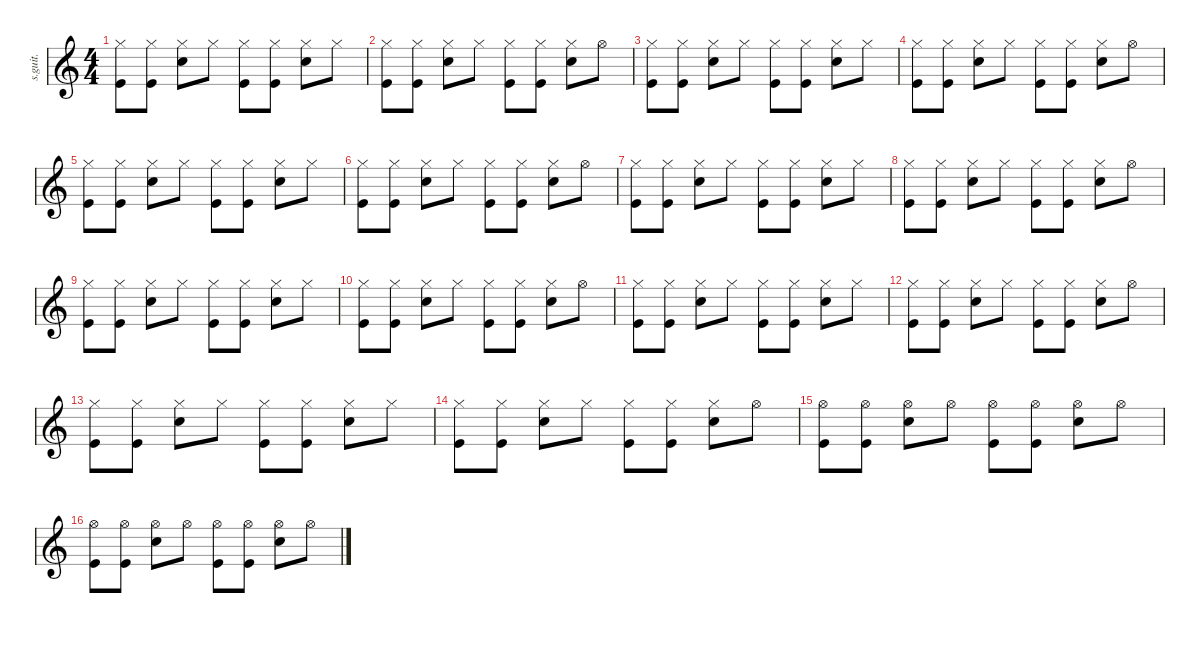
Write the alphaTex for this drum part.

\defaultSystemsLayout 4
\hideDynamics
\bracketExtendMode nobrackets
\track ("Will Champion" "s.guit.") {instrument percussion}
\staff {score}
\articulation defaults
\ts (4 4)
\tempo (87 hide)
\clef g2
\ks c
("Hi-Hat (closed)" "Kick (hit)").8{lyrics (0 "") lyrics (1 "") lyrics (2 "") lyrics (3 "") lyrics (4 "") dy mf} ("Hi-Hat (closed)" "Kick (hit)").8{lyrics (0 "") lyrics (1 "") lyrics (2 "") lyrics (3 "") lyrics (4 "")} ("Hi-Hat (closed)" "Snare (hit) 2").8{lyrics (0 "") lyrics (1 "") lyrics (2 "") lyrics (3 "") lyrics (4 "")} "Hi-Hat (closed)".8{lyrics (0 "") lyrics (1 "") lyrics (2 "") lyrics (3 "") lyrics (4 "")} ("Hi-Hat (closed)" "Kick (hit)").8{lyrics (0 "") lyrics (1 "") lyrics (2 "") lyrics (3 "") lyrics (4 "")} ("Hi-Hat (closed)" "Kick (hit)").8{lyrics (0 "") lyrics (1 "") lyrics (2 "") lyrics (3 "") lyrics (4 "")} ("Hi-Hat (closed)" "Snare (hit) 2").8{lyrics (0 "") lyrics (1 "") lyrics (2 "") lyrics (3 "") lyrics (4 "")} "Hi-Hat (closed)".8{lyrics (0 "") lyrics (1 "") lyrics (2 "") lyrics (3 "") lyrics (4 "")} |
("Kick (hit)" "Hi-Hat (closed)").8{lyrics (0 "") lyrics (1 "") lyrics (2 "") lyrics (3 "") lyrics (4 "")} ("Kick (hit)" "Hi-Hat (closed)").8{lyrics (0 "") lyrics (1 "") lyrics (2 "") lyrics (3 "") lyrics (4 "")} ("Snare (hit) 2" "Hi-Hat (closed)").8{lyrics (0 "") lyrics (1 "") lyrics (2 "") lyrics (3 "") lyrics (4 "")} "Hi-Hat (closed)".8{lyrics (0 "") lyrics (1 "") lyrics (2 "") lyrics (3 "") lyrics (4 "")} ("Kick (hit)" "Hi-Hat (closed)").8{lyrics (0 "") lyrics (1 "") lyrics (2 "") lyrics (3 "") lyrics (4 "")} ("Kick (hit)" "Hi-Hat (closed)").8{lyrics (0 "") lyrics (1 "") lyrics (2 "") lyrics (3 "") lyrics (4 "")} ("Snare (hit) 2" "Hi-Hat (closed)").8{lyrics (0 "") lyrics (1 "") lyrics (2 "") lyrics (3 "") lyrics (4 "")} "Hi-Hat (open)".8{lyrics (0 "") lyrics (1 "") lyrics (2 "") lyrics (3 "") lyrics (4 "")} |
("Hi-Hat (closed)" "Kick (hit)").8{lyrics (0 "") lyrics (1 "") lyrics (2 "") lyrics (3 "") lyrics (4 "")} ("Hi-Hat (closed)" "Kick (hit)").8{lyrics (0 "") lyrics (1 "") lyrics (2 "") lyrics (3 "") lyrics (4 "")} ("Hi-Hat (closed)" "Snare (hit) 2").8{lyrics (0 "") lyrics (1 "") lyrics (2 "") lyrics (3 "") lyrics (4 "")} "Hi-Hat (closed)".8{lyrics (0 "") lyrics (1 "") lyrics (2 "") lyrics (3 "") lyrics (4 "")} ("Hi-Hat (closed)" "Kick (hit)").8{lyrics (0 "") lyrics (1 "") lyrics (2 "") lyrics (3 "") lyrics (4 "")} ("Hi-Hat (closed)" "Kick (hit)").8{lyrics (0 "") lyrics (1 "") lyrics (2 "") lyrics (3 "") lyrics (4 "")} ("Hi-Hat (closed)" "Snare (hit) 2").8{lyrics (0 "") lyrics (1 "") lyrics (2 "") lyrics (3 "") lyrics (4 "")} "Hi-Hat (closed)".8{lyrics (0 "") lyrics (1 "") lyrics (2 "") lyrics (3 "") lyrics (4 "")} |
("Kick (hit)" "Hi-Hat (closed)").8{lyrics (0 "") lyrics (1 "") lyrics (2 "") lyrics (3 "") lyrics (4 "")} ("Kick (hit)" "Hi-Hat (closed)").8{lyrics (0 "") lyrics (1 "") lyrics (2 "") lyrics (3 "") lyrics (4 "")} ("Snare (hit) 2" "Hi-Hat (closed)").8{lyrics (0 "") lyrics (1 "") lyrics (2 "") lyrics (3 "") lyrics (4 "")} "Hi-Hat (closed)".8{lyrics (0 "") lyrics (1 "") lyrics (2 "") lyrics (3 "") lyrics (4 "")} ("Kick (hit)" "Hi-Hat (closed)").8{lyrics (0 "") lyrics (1 "") lyrics (2 "") lyrics (3 "") lyrics (4 "")} ("Kick (hit)" "Hi-Hat (closed)").8{lyrics (0 "") lyrics (1 "") lyrics (2 "") lyrics (3 "") lyrics (4 "")} ("Snare (hit) 2" "Hi-Hat (closed)").8{lyrics (0 "") lyrics (1 "") lyrics (2 "") lyrics (3 "") lyrics (4 "")} "Hi-Hat (open)".8{lyrics (0 "") lyrics (1 "") lyrics (2 "") lyrics (3 "") lyrics (4 "")} |
("Hi-Hat (closed)" "Kick (hit)").8{lyrics (0 "") lyrics (1 "") lyrics (2 "") lyrics (3 "") lyrics (4 "")} ("Hi-Hat (closed)" "Kick (hit)").8{lyrics (0 "") lyrics (1 "") lyrics (2 "") lyrics (3 "") lyrics (4 "")} ("Hi-Hat (closed)" "Snare (hit) 2").8{lyrics (0 "") lyrics (1 "") lyrics (2 "") lyrics (3 "") lyrics (4 "")} "Hi-Hat (closed)".8{lyrics (0 "") lyrics (1 "") lyrics (2 "") lyrics (3 "") lyrics (4 "")} ("Hi-Hat (closed)" "Kick (hit)").8{lyrics (0 "") lyrics (1 "") lyrics (2 "") lyrics (3 "") lyrics (4 "")} ("Hi-Hat (closed)" "Kick (hit)").8{lyrics (0 "") lyrics (1 "") lyrics (2 "") lyrics (3 "") lyrics (4 "")} ("Hi-Hat (closed)" "Snare (hit) 2").8{lyrics (0 "") lyrics (1 "") lyrics (2 "") lyrics (3 "") lyrics (4 "")} "Hi-Hat (closed)".8{lyrics (0 "") lyrics (1 "") lyrics (2 "") lyrics (3 "") lyrics (4 "")} |
("Kick (hit)" "Hi-Hat (closed)").8{lyrics (0 "") lyrics (1 "") lyrics (2 "") lyrics (3 "") lyrics (4 "")} ("Kick (hit)" "Hi-Hat (closed)").8{lyrics (0 "") lyrics (1 "") lyrics (2 "") lyrics (3 "") lyrics (4 "")} ("Snare (hit) 2" "Hi-Hat (closed)").8{lyrics (0 "") lyrics (1 "") lyrics (2 "") lyrics (3 "") lyrics (4 "")} "Hi-Hat (closed)".8{lyrics (0 "") lyrics (1 "") lyrics (2 "") lyrics (3 "") lyrics (4 "")} ("Kick (hit)" "Hi-Hat (closed)").8{lyrics (0 "") lyrics (1 "") lyrics (2 "") lyrics (3 "") lyrics (4 "")} ("Kick (hit)" "Hi-Hat (closed)").8{lyrics (0 "") lyrics (1 "") lyrics (2 "") lyrics (3 "") lyrics (4 "")} ("Snare (hit) 2" "Hi-Hat (closed)").8{lyrics (0 "") lyrics (1 "") lyrics (2 "") lyrics (3 "") lyrics (4 "")} "Hi-Hat (open)".8{lyrics (0 "") lyrics (1 "") lyrics (2 "") lyrics (3 "") lyrics (4 "")} |
("Hi-Hat (closed)" "Kick (hit)").8{lyrics (0 "") lyrics (1 "") lyrics (2 "") lyrics (3 "") lyrics (4 "")} ("Hi-Hat (closed)" "Kick (hit)").8{lyrics (0 "") lyrics (1 "") lyrics (2 "") lyrics (3 "") lyrics (4 "")} ("Hi-Hat (closed)" "Snare (hit) 2").8{lyrics (0 "") lyrics (1 "") lyrics (2 "") lyrics (3 "") lyrics (4 "")} "Hi-Hat (closed)".8{lyrics (0 "") lyrics (1 "") lyrics (2 "") lyrics (3 "") lyrics (4 "")} ("Hi-Hat (closed)" "Kick (hit)").8{lyrics (0 "") lyrics (1 "") lyrics (2 "") lyrics (3 "") lyrics (4 "")} ("Hi-Hat (closed)" "Kick (hit)").8{lyrics (0 "") lyrics (1 "") lyrics (2 "") lyrics (3 "") lyrics (4 "")} ("Hi-Hat (closed)" "Snare (hit) 2").8{lyrics (0 "") lyrics (1 "") lyrics (2 "") lyrics (3 "") lyrics (4 "")} "Hi-Hat (closed)".8{lyrics (0 "") lyrics (1 "") lyrics (2 "") lyrics (3 "") lyrics (4 "")} |
("Kick (hit)" "Hi-Hat (closed)").8{lyrics (0 "") lyrics (1 "") lyrics (2 "") lyrics (3 "") lyrics (4 "")} ("Kick (hit)" "Hi-Hat (closed)").8{lyrics (0 "") lyrics (1 "") lyrics (2 "") lyrics (3 "") lyrics (4 "")} ("Snare (hit) 2" "Hi-Hat (closed)").8{lyrics (0 "") lyrics (1 "") lyrics (2 "") lyrics (3 "") lyrics (4 "")} "Hi-Hat (closed)".8{lyrics (0 "") lyrics (1 "") lyrics (2 "") lyrics (3 "") lyrics (4 "")} ("Kick (hit)" "Hi-Hat (closed)").8{lyrics (0 "") lyrics (1 "") lyrics (2 "") lyrics (3 "") lyrics (4 "")} ("Kick (hit)" "Hi-Hat (closed)").8{lyrics (0 "") lyrics (1 "") lyrics (2 "") lyrics (3 "") lyrics (4 "")} ("Snare (hit) 2" "Hi-Hat (closed)").8{lyrics (0 "") lyrics (1 "") lyrics (2 "") lyrics (3 "") lyrics (4 "")} "Hi-Hat (open)".8{lyrics (0 "") lyrics (1 "") lyrics (2 "") lyrics (3 "") lyrics (4 "")} |
("Hi-Hat (closed)" "Kick (hit)").8{lyrics (0 "") lyrics (1 "") lyrics (2 "") lyrics (3 "") lyrics (4 "")} ("Hi-Hat (closed)" "Kick (hit)").8{lyrics (0 "") lyrics (1 "") lyrics (2 "") lyrics (3 "") lyrics (4 "")} ("Hi-Hat (closed)" "Snare (hit) 2").8{lyrics (0 "") lyrics (1 "") lyrics (2 "") lyrics (3 "") lyrics (4 "")} "Hi-Hat (closed)".8{lyrics (0 "") lyrics (1 "") lyrics (2 "") lyrics (3 "") lyrics (4 "")} ("Hi-Hat (closed)" "Kick (hit)").8{lyrics (0 "") lyrics (1 "") lyrics (2 "") lyrics (3 "") lyrics (4 "")} ("Hi-Hat (closed)" "Kick (hit)").8{lyrics (0 "") lyrics (1 "") lyrics (2 "") lyrics (3 "") lyrics (4 "")} ("Hi-Hat (closed)" "Snare (hit) 2").8{lyrics (0 "") lyrics (1 "") lyrics (2 "") lyrics (3 "") lyrics (4 "")} "Hi-Hat (closed)".8{lyrics (0 "") lyrics (1 "") lyrics (2 "") lyrics (3 "") lyrics (4 "")} |
("Kick (hit)" "Hi-Hat (closed)").8{lyrics (0 "") lyrics (1 "") lyrics (2 "") lyrics (3 "") lyrics (4 "")} ("Kick (hit)" "Hi-Hat (closed)").8{lyrics (0 "") lyrics (1 "") lyrics (2 "") lyrics (3 "") lyrics (4 "")} ("Snare (hit) 2" "Hi-Hat (closed)").8{lyrics (0 "") lyrics (1 "") lyrics (2 "") lyrics (3 "") lyrics (4 "")} "Hi-Hat (closed)".8{lyrics (0 "") lyrics (1 "") lyrics (2 "") lyrics (3 "") lyrics (4 "")} ("Kick (hit)" "Hi-Hat (closed)").8{lyrics (0 "") lyrics (1 "") lyrics (2 "") lyrics (3 "") lyrics (4 "")} ("Kick (hit)" "Hi-Hat (closed)").8{lyrics (0 "") lyrics (1 "") lyrics (2 "") lyrics (3 "") lyrics (4 "")} ("Snare (hit) 2" "Hi-Hat (closed)").8{lyrics (0 "") lyrics (1 "") lyrics (2 "") lyrics (3 "") lyrics (4 "")} "Hi-Hat (open)".8{lyrics (0 "") lyrics (1 "") lyrics (2 "") lyrics (3 "") lyrics (4 "")} |
("Hi-Hat (closed)" "Kick (hit)").8{lyrics (0 "") lyrics (1 "") lyrics (2 "") lyrics (3 "") lyrics (4 "")} ("Hi-Hat (closed)" "Kick (hit)").8{lyrics (0 "") lyrics (1 "") lyrics (2 "") lyrics (3 "") lyrics (4 "")} ("Hi-Hat (closed)" "Snare (hit) 2").8{lyrics (0 "") lyrics (1 "") lyrics (2 "") lyrics (3 "") lyrics (4 "")} "Hi-Hat (closed)".8{lyrics (0 "") lyrics (1 "") lyrics (2 "") lyrics (3 "") lyrics (4 "")} ("Hi-Hat (closed)" "Kick (hit)").8{lyrics (0 "") lyrics (1 "") lyrics (2 "") lyrics (3 "") lyrics (4 "")} ("Hi-Hat (closed)" "Kick (hit)").8{lyrics (0 "") lyrics (1 "") lyrics (2 "") lyrics (3 "") lyrics (4 "")} ("Hi-Hat (closed)" "Snare (hit) 2").8{lyrics (0 "") lyrics (1 "") lyrics (2 "") lyrics (3 "") lyrics (4 "")} "Hi-Hat (closed)".8{lyrics (0 "") lyrics (1 "") lyrics (2 "") lyrics (3 "") lyrics (4 "")} |
("Kick (hit)" "Hi-Hat (closed)").8{lyrics (0 "") lyrics (1 "") lyrics (2 "") lyrics (3 "") lyrics (4 "")} ("Kick (hit)" "Hi-Hat (closed)").8{lyrics (0 "") lyrics (1 "") lyrics (2 "") lyrics (3 "") lyrics (4 "")} ("Snare (hit) 2" "Hi-Hat (closed)").8{lyrics (0 "") lyrics (1 "") lyrics (2 "") lyrics (3 "") lyrics (4 "")} "Hi-Hat (closed)".8{lyrics (0 "") lyrics (1 "") lyrics (2 "") lyrics (3 "") lyrics (4 "")} ("Kick (hit)" "Hi-Hat (closed)").8{lyrics (0 "") lyrics (1 "") lyrics (2 "") lyrics (3 "") lyrics (4 "")} ("Kick (hit)" "Hi-Hat (closed)").8{lyrics (0 "") lyrics (1 "") lyrics (2 "") lyrics (3 "") lyrics (4 "")} ("Snare (hit) 2" "Hi-Hat (closed)").8{lyrics (0 "") lyrics (1 "") lyrics (2 "") lyrics (3 "") lyrics (4 "")} "Hi-Hat (open)".8{lyrics (0 "") lyrics (1 "") lyrics (2 "") lyrics (3 "") lyrics (4 "")} |
("Hi-Hat (closed)" "Kick (hit)").8{lyrics (0 "") lyrics (1 "") lyrics (2 "") lyrics (3 "") lyrics (4 "")} ("Hi-Hat (closed)" "Kick (hit)").8{lyrics (0 "") lyrics (1 "") lyrics (2 "") lyrics (3 "") lyrics (4 "")} ("Hi-Hat (closed)" "Snare (hit) 2").8{lyrics (0 "") lyrics (1 "") lyrics (2 "") lyrics (3 "") lyrics (4 "")} "Hi-Hat (closed)".8{lyrics (0 "") lyrics (1 "") lyrics (2 "") lyrics (3 "") lyrics (4 "")} ("Hi-Hat (closed)" "Kick (hit)").8{lyrics (0 "") lyrics (1 "") lyrics (2 "") lyrics (3 "") lyrics (4 "")} ("Hi-Hat (closed)" "Kick (hit)").8{lyrics (0 "") lyrics (1 "") lyrics (2 "") lyrics (3 "") lyrics (4 "")} ("Hi-Hat (closed)" "Snare (hit) 2").8{lyrics (0 "") lyrics (1 "") lyrics (2 "") lyrics (3 "") lyrics (4 "")} "Hi-Hat (closed)".8{lyrics (0 "") lyrics (1 "") lyrics (2 "") lyrics (3 "") lyrics (4 "")} |
("Kick (hit)" "Hi-Hat (closed)").8{lyrics (0 "") lyrics (1 "") lyrics (2 "") lyrics (3 "") lyrics (4 "")} ("Kick (hit)" "Hi-Hat (closed)").8{lyrics (0 "") lyrics (1 "") lyrics (2 "") lyrics (3 "") lyrics (4 "")} ("Snare (hit) 2" "Hi-Hat (closed)").8{lyrics (0 "") lyrics (1 "") lyrics (2 "") lyrics (3 "") lyrics (4 "")} "Hi-Hat (closed)".8{lyrics (0 "") lyrics (1 "") lyrics (2 "") lyrics (3 "") lyrics (4 "")} ("Kick (hit)" "Hi-Hat (closed)").8{lyrics (0 "") lyrics (1 "") lyrics (2 "") lyrics (3 "") lyrics (4 "")} ("Kick (hit)" "Hi-Hat (closed)").8{lyrics (0 "") lyrics (1 "") lyrics (2 "") lyrics (3 "") lyrics (4 "")} ("Snare (hit) 2" "Hi-Hat (closed)").8{lyrics (0 "") lyrics (1 "") lyrics (2 "") lyrics (3 "") lyrics (4 "")} "Hi-Hat (open)".8{lyrics (0 "") lyrics (1 "") lyrics (2 "") lyrics (3 "") lyrics (4 "")} |
("Hi-Hat (open)" "Kick (hit)").8{lyrics (0 "") lyrics (1 "") lyrics (2 "") lyrics (3 "") lyrics (4 "")} ("Hi-Hat (open)" "Kick (hit)").8{lyrics (0 "") lyrics (1 "") lyrics (2 "") lyrics (3 "") lyrics (4 "")} ("Hi-Hat (open)" "Snare (hit) 2").8{lyrics (0 "") lyrics (1 "") lyrics (2 "") lyrics (3 "") lyrics (4 "")} "Hi-Hat (open)".8{lyrics (0 "") lyrics (1 "") lyrics (2 "") lyrics (3 "") lyrics (4 "")} ("Hi-Hat (open)" "Kick (hit)").8{lyrics (0 "") lyrics (1 "") lyrics (2 "") lyrics (3 "") lyrics (4 "")} ("Hi-Hat (open)" "Kick (hit)").8{lyrics (0 "") lyrics (1 "") lyrics (2 "") lyrics (3 "") lyrics (4 "")} ("Hi-Hat (open)" "Snare (hit) 2").8{lyrics (0 "") lyrics (1 "") lyrics (2 "") lyrics (3 "") lyrics (4 "")} "Hi-Hat (open)".8{lyrics (0 "") lyrics (1 "") lyrics (2 "") lyrics (3 "") lyrics (4 "")} |
("Hi-Hat (open)" "Kick (hit)").8{lyrics (0 "") lyrics (1 "") lyrics (2 "") lyrics (3 "") lyrics (4 "")} ("Hi-Hat (open)" "Kick (hit)").8{lyrics (0 "") lyrics (1 "") lyrics (2 "") lyrics (3 "") lyrics (4 "")} ("Hi-Hat (open)" "Snare (hit) 2").8{lyrics (0 "") lyrics (1 "") lyrics (2 "") lyrics (3 "") lyrics (4 "")} "Hi-Hat (open)".8{lyrics (0 "") lyrics (1 "") lyrics (2 "") lyrics (3 "") lyrics (4 "")} ("Hi-Hat (open)" "Kick (hit)").8{lyrics (0 "") lyrics (1 "") lyrics (2 "") lyrics (3 "") lyrics (4 "")} ("Hi-Hat (open)" "Kick (hit)").8{lyrics (0 "") lyrics (1 "") lyrics (2 "") lyrics (3 "") lyrics (4 "")} ("Hi-Hat (open)" "Snare (hit) 2").8{lyrics (0 "") lyrics (1 "") lyrics (2 "") lyrics (3 "") lyrics (4 "")} "Hi-Hat (open)".8{lyrics (0 "") lyrics (1 "") lyrics (2 "") lyrics (3 "") lyrics (4 "")}
